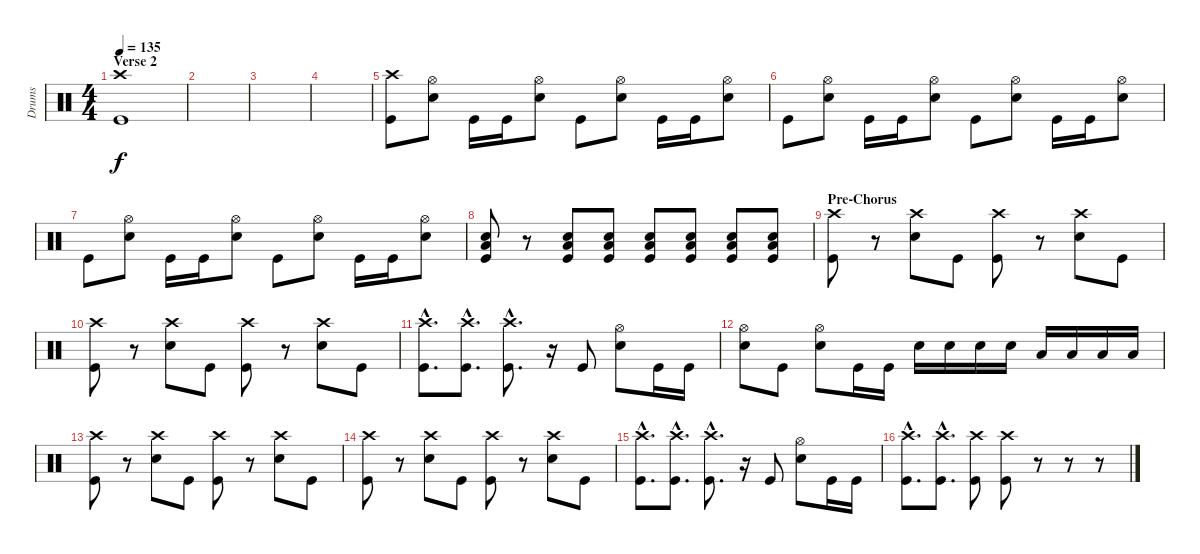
\track ("Drums" "Drums") {instrument percussion}
\staff {score}
\articulation defaults
\ts (4 4)
\section ("" "Verse 2")
\tempo 135
\clef neutral
\ks c
("Crash high (hit)" "Kick (hit)").1{dy f} |
|
|
|
("Crash high (hit)" "Kick (hit)").8 ("Hi-Hat (open)" "Snare (hit) 2").8 "Kick (hit)".16 "Kick (hit)".16 ("Hi-Hat (open)" "Snare (hit) 2").8 "Kick (hit)".8 ("Hi-Hat (open)" "Snare (hit) 2").8 "Kick (hit)".16 "Kick (hit)".16 ("Hi-Hat (open)" "Snare (hit) 2").8 |
"Kick (hit)".8 ("Hi-Hat (open)" "Snare (hit) 2").8 "Kick (hit)".16 "Kick (hit)".16 ("Hi-Hat (open)" "Snare (hit) 2").8 "Kick (hit)".8 ("Hi-Hat (open)" "Snare (hit) 2").8 "Kick (hit)".16 "Kick (hit)".16 ("Hi-Hat (open)" "Snare (hit) 2").8 |
"Kick (hit)".8 ("Hi-Hat (open)" "Snare (hit) 2").8 "Kick (hit)".16 "Kick (hit)".16 ("Hi-Hat (open)" "Snare (hit) 2").8 "Kick (hit)".8 ("Hi-Hat (open)" "Snare (hit) 2").8 "Kick (hit)".16 "Kick (hit)".16 ("Hi-Hat (open)" "Snare (hit) 2").8 |
("Snare (hit) 2" "Low Floor Tom (hit)" "Kick (hit)").8 r.8{volume 0} ("Snare (hit) 2" "Low Floor Tom (hit)" "Kick (hit)").8{volume 11} ("Snare (hit) 2" "Low Floor Tom (hit)" "Kick (hit)").8 ("Snare (hit) 2" "Low Floor Tom (hit)" "Kick (hit)").8 ("Snare (hit) 2" "Low Floor Tom (hit)" "Kick (hit)").8 ("Snare (hit) 2" "Low Floor Tom (hit)" "Kick (hit)").8 ("Snare (hit) 2" "Low Floor Tom (hit)" "Kick (hit)").8 |
\section ("" "Pre-Chorus")
("Crash high (hit)" "Kick (hit)").8 r.8 ("Crash high (hit)" "Snare (hit) 2").8 "Kick (hit)".8 ("Crash high (hit)" "Kick (hit)").8 r.8 ("Crash high (hit)" "Snare (hit) 2").8 "Kick (hit)".8 |
("Crash high (hit)" "Kick (hit)").8 r.8 ("Crash high (hit)" "Snare (hit) 2").8 "Kick (hit)".8 ("Crash high (hit)" "Kick (hit)").8 r.8 ("Crash high (hit)" "Snare (hit) 2").8 "Kick (hit)".8 |
("Crash high (hit)"{hac} "Kick (hit)"{hac}).8{d} ("Crash high (hit)"{hac} "Kick (hit)"{hac}).8{d} ("Crash high (hit)"{hac} "Kick (hit)"{hac}).8{d} r.16 "Kick (hit)".8 ("Hi-Hat (open)" "Snare (hit) 2").8 "Kick (hit)".16 "Kick (hit)".16 |
("Hi-Hat (open)" "Snare (hit) 2").8 "Kick (hit)".8 ("Hi-Hat (open)" "Snare (hit) 2").8 "Kick (hit)".16 "Kick (hit)".16 "Snare (hit) 2".16 "Snare (hit) 2".16 "Snare (hit) 2".16 "Snare (hit) 2".16 "Low Tom (hit)".16 "Low Tom (hit)".16 "Low Floor Tom (hit)".16 "Low Floor Tom (hit)".16 |
("Crash high (hit)" "Kick (hit)").8 r.8 ("Crash high (hit)" "Snare (hit) 2").8 "Kick (hit)".8 ("Crash high (hit)" "Kick (hit)").8 r.8 ("Crash high (hit)" "Snare (hit) 2").8 "Kick (hit)".8 |
("Crash high (hit)" "Kick (hit)").8 r.8 ("Crash high (hit)" "Snare (hit) 2").8 "Kick (hit)".8 ("Crash high (hit)" "Kick (hit)").8 r.8 ("Crash high (hit)" "Snare (hit) 2").8 "Kick (hit)".8 |
("Crash high (hit)"{hac} "Kick (hit)"{hac}).8{d} ("Crash high (hit)"{hac} "Kick (hit)"{hac}).8{d} ("Crash high (hit)"{hac} "Kick (hit)"{hac}).8{d} r.16 "Kick (hit)".8 ("Hi-Hat (open)" "Snare (hit) 2").8 "Kick (hit)".16 "Kick (hit)".16 |
("Crash high (hit)"{hac} "Kick (hit)"{hac}).8{d} ("Crash high (hit)"{hac} "Kick (hit)"{hac}).8{d} ("Crash high (hit)" "Kick (hit)").8 ("Crash high (hit)" "Kick (hit)").8 r.8 r.8 r.8
